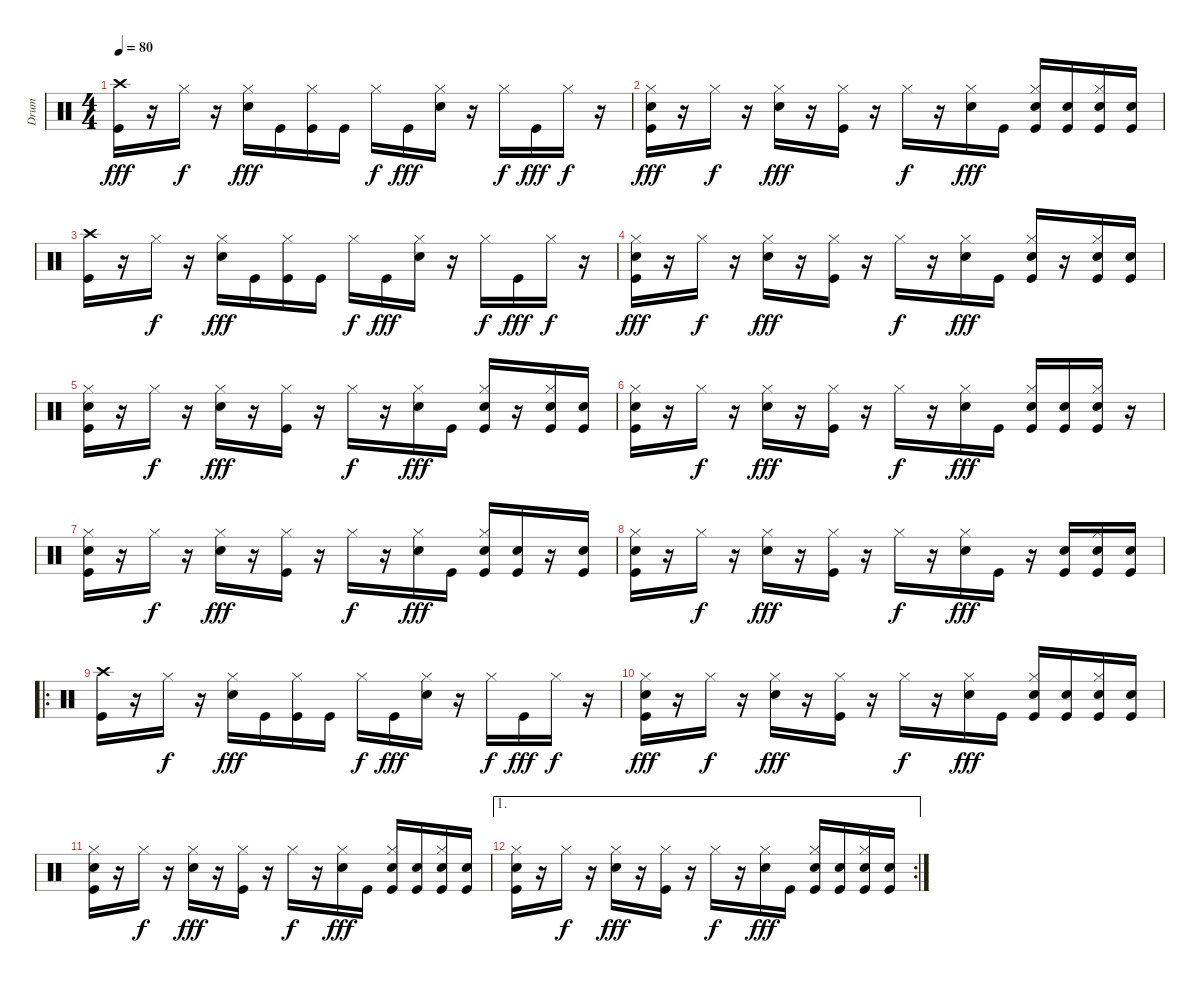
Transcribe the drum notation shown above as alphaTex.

\track ("Drum" "Drum") {instrument percussion}
\staff {score}
\articulation defaults
\ts (4 4)
\tempo 80
\clef neutral
\ks c
("Crash high (hit)" "Kick (hit)").16{dy fff} r.16 "Hi-Hat (closed)".16{dy f} r.16 ("Hi-Hat (closed)" "Electric Snare (hit)").16{dy fff} "Kick (hit)".16 ("Hi-Hat (closed)" "Kick (hit)").16 "Kick (hit)".16 "Hi-Hat (closed)".16{dy f} "Kick (hit)".16{dy fff} ("Hi-Hat (closed)" "Electric Snare (hit)").16 r.16 "Hi-Hat (closed)".16{dy f} "Kick (hit)".16{dy fff} "Hi-Hat (closed)".16{dy f} r.16 |
("Hi-Hat (closed)" "Electric Snare (hit)" "Kick (hit)").16{dy fff} r.16 "Hi-Hat (closed)".16{dy f} r.16 ("Hi-Hat (closed)" "Electric Snare (hit)").16{dy fff} r.16 ("Hi-Hat (closed)" "Kick (hit)").16 r.16 "Hi-Hat (closed)".16{dy f} r.16 ("Hi-Hat (closed)" "Electric Snare (hit)").16{dy fff} "Kick (hit)".16 ("Hi-Hat (closed)" "Electric Snare (hit)" "Kick (hit)").16 ("Electric Snare (hit)" "Kick (hit)").16 ("Hi-Hat (closed)" "Electric Snare (hit)" "Kick (hit)").16 ("Electric Snare (hit)" "Kick (hit)").16 |
("Crash high (hit)" "Kick (hit)").16 r.16 "Hi-Hat (closed)".16{dy f} r.16 ("Hi-Hat (closed)" "Electric Snare (hit)").16{dy fff} "Kick (hit)".16 ("Hi-Hat (closed)" "Kick (hit)").16 "Kick (hit)".16 "Hi-Hat (closed)".16{dy f} "Kick (hit)".16{dy fff} ("Hi-Hat (closed)" "Electric Snare (hit)").16 r.16 "Hi-Hat (closed)".16{dy f} "Kick (hit)".16{dy fff} "Hi-Hat (closed)".16{dy f} r.16 |
("Hi-Hat (closed)" "Electric Snare (hit)" "Kick (hit)").16{dy fff} r.16 "Hi-Hat (closed)".16{dy f} r.16 ("Hi-Hat (closed)" "Electric Snare (hit)").16{dy fff} r.16 ("Hi-Hat (closed)" "Kick (hit)").16 r.16 "Hi-Hat (closed)".16{dy f} r.16 ("Hi-Hat (closed)" "Electric Snare (hit)").16{dy fff} "Kick (hit)".16 ("Hi-Hat (closed)" "Electric Snare (hit)" "Kick (hit)").16 r.16 ("Hi-Hat (closed)" "Electric Snare (hit)" "Kick (hit)").16 ("Electric Snare (hit)" "Kick (hit)").16 |
("Hi-Hat (closed)" "Electric Snare (hit)" "Kick (hit)").16 r.16 "Hi-Hat (closed)".16{dy f} r.16 ("Hi-Hat (closed)" "Electric Snare (hit)").16{dy fff} r.16 ("Hi-Hat (closed)" "Kick (hit)").16 r.16 "Hi-Hat (closed)".16{dy f} r.16 ("Hi-Hat (closed)" "Electric Snare (hit)").16{dy fff} "Kick (hit)".16 ("Hi-Hat (closed)" "Electric Snare (hit)" "Kick (hit)").16 r.16 ("Hi-Hat (closed)" "Electric Snare (hit)" "Kick (hit)").16 ("Electric Snare (hit)" "Kick (hit)").16 |
("Hi-Hat (closed)" "Electric Snare (hit)" "Kick (hit)").16 r.16 "Hi-Hat (closed)".16{dy f} r.16 ("Hi-Hat (closed)" "Electric Snare (hit)").16{dy fff} r.16 ("Hi-Hat (closed)" "Kick (hit)").16 r.16 "Hi-Hat (closed)".16{dy f} r.16 ("Hi-Hat (closed)" "Electric Snare (hit)").16{dy fff} "Kick (hit)".16 ("Hi-Hat (closed)" "Electric Snare (hit)" "Kick (hit)").16 ("Electric Snare (hit)" "Kick (hit)").16 ("Hi-Hat (closed)" "Electric Snare (hit)" "Kick (hit)").16 r.16 |
("Hi-Hat (closed)" "Electric Snare (hit)" "Kick (hit)").16 r.16 "Hi-Hat (closed)".16{dy f} r.16 ("Hi-Hat (closed)" "Electric Snare (hit)").16{dy fff} r.16 ("Hi-Hat (closed)" "Kick (hit)").16 r.16 "Hi-Hat (closed)".16{dy f} r.16 ("Hi-Hat (closed)" "Electric Snare (hit)").16{dy fff} "Kick (hit)".16 ("Hi-Hat (closed)" "Electric Snare (hit)" "Kick (hit)").16 ("Electric Snare (hit)" "Kick (hit)").16 r.16 ("Electric Snare (hit)" "Kick (hit)").16 |
("Hi-Hat (closed)" "Electric Snare (hit)" "Kick (hit)").16 r.16 "Hi-Hat (closed)".16{dy f} r.16 ("Hi-Hat (closed)" "Electric Snare (hit)").16{dy fff} r.16 ("Hi-Hat (closed)" "Kick (hit)").16 r.16 "Hi-Hat (closed)".16{dy f} r.16 ("Hi-Hat (closed)" "Electric Snare (hit)").16{dy fff} "Kick (hit)".16 r.16 ("Electric Snare (hit)" "Kick (hit)").16 ("Hi-Hat (closed)" "Electric Snare (hit)" "Kick (hit)").16 ("Electric Snare (hit)" "Kick (hit)").16 |
\ro
("Crash high (hit)" "Kick (hit)").16 r.16 "Hi-Hat (closed)".16{dy f} r.16 ("Hi-Hat (closed)" "Electric Snare (hit)").16{dy fff} "Kick (hit)".16 ("Hi-Hat (closed)" "Kick (hit)").16 "Kick (hit)".16 "Hi-Hat (closed)".16{dy f} "Kick (hit)".16{dy fff} ("Hi-Hat (closed)" "Electric Snare (hit)").16 r.16 "Hi-Hat (closed)".16{dy f} "Kick (hit)".16{dy fff} "Hi-Hat (closed)".16{dy f} r.16 |
("Hi-Hat (closed)" "Electric Snare (hit)" "Kick (hit)").16{dy fff} r.16 "Hi-Hat (closed)".16{dy f} r.16 ("Hi-Hat (closed)" "Electric Snare (hit)").16{dy fff} r.16 ("Hi-Hat (closed)" "Kick (hit)").16 r.16 "Hi-Hat (closed)".16{dy f} r.16 ("Hi-Hat (closed)" "Electric Snare (hit)").16{dy fff} "Kick (hit)".16 ("Hi-Hat (closed)" "Electric Snare (hit)" "Kick (hit)").16 ("Electric Snare (hit)" "Kick (hit)").16 ("Hi-Hat (closed)" "Electric Snare (hit)" "Kick (hit)").16 ("Electric Snare (hit)" "Kick (hit)").16 |
("Hi-Hat (closed)" "Electric Snare (hit)" "Kick (hit)").16 r.16 "Hi-Hat (closed)".16{dy f} r.16 ("Hi-Hat (closed)" "Electric Snare (hit)").16{dy fff} r.16 ("Hi-Hat (closed)" "Kick (hit)").16 r.16 "Hi-Hat (closed)".16{dy f} r.16 ("Hi-Hat (closed)" "Electric Snare (hit)").16{dy fff} "Kick (hit)".16 ("Hi-Hat (closed)" "Electric Snare (hit)" "Kick (hit)").16 ("Electric Snare (hit)" "Kick (hit)").16 ("Hi-Hat (closed)" "Electric Snare (hit)" "Kick (hit)").16 ("Electric Snare (hit)" "Kick (hit)").16 |
\ae 1
\rc 2
("Hi-Hat (closed)" "Electric Snare (hit)" "Kick (hit)").16 r.16 "Hi-Hat (closed)".16{dy f} r.16 ("Hi-Hat (closed)" "Electric Snare (hit)").16{dy fff} r.16 ("Hi-Hat (closed)" "Kick (hit)").16 r.16 "Hi-Hat (closed)".16{dy f} r.16 ("Hi-Hat (closed)" "Electric Snare (hit)").16{dy fff} "Kick (hit)".16 ("Hi-Hat (closed)" "Electric Snare (hit)" "Kick (hit)").16 ("Electric Snare (hit)" "Kick (hit)").16 ("Hi-Hat (closed)" "Electric Snare (hit)" "Kick (hit)").16 ("Electric Snare (hit)" "Kick (hit)").16
